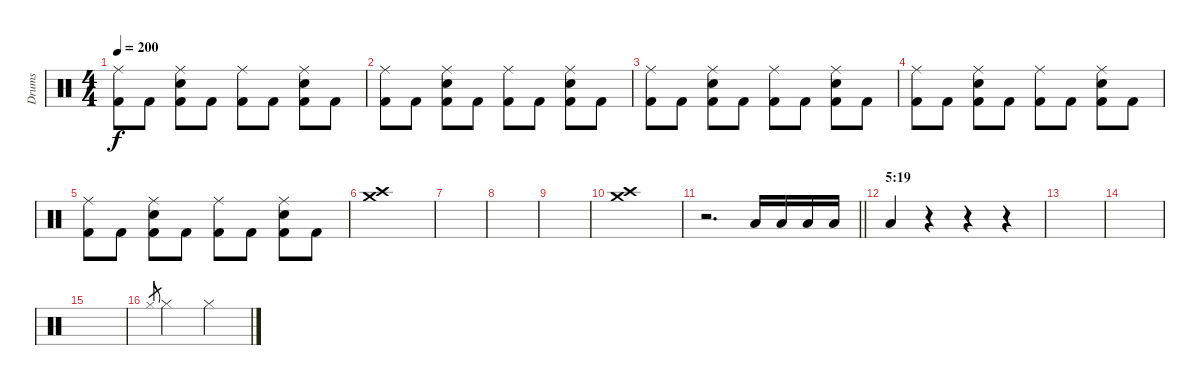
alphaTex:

\track ("Drums" "Drums") {instrument percussion}
\staff {score}
\articulation defaults
\ts (4 4)
\tempo 200
\clef neutral
\ks c
("Ride (middle)" "Kick (hit) 2").8{dy f} "Kick (hit) 2".8 ("Ride (middle)" "Snare (hit) 2" "Kick (hit) 2").8 "Kick (hit) 2".8 ("Ride (middle)" "Kick (hit) 2").8 "Kick (hit) 2".8 ("Ride (middle)" "Snare (hit) 2" "Kick (hit) 2").8 "Kick (hit) 2".8 |
("Ride (middle)" "Kick (hit) 2").8 "Kick (hit) 2".8 ("Ride (middle)" "Snare (hit) 2" "Kick (hit) 2").8 "Kick (hit) 2".8 ("Ride (middle)" "Kick (hit) 2").8 "Kick (hit) 2".8 ("Ride (middle)" "Snare (hit) 2" "Kick (hit) 2").8 "Kick (hit) 2".8 |
("Ride (middle)" "Kick (hit) 2").8 "Kick (hit) 2".8 ("Ride (middle)" "Snare (hit) 2" "Kick (hit) 2").8 "Kick (hit) 2".8 ("Ride (middle)" "Kick (hit) 2").8 "Kick (hit) 2".8 ("Ride (middle)" "Snare (hit) 2" "Kick (hit) 2").8 "Kick (hit) 2".8 |
("Ride (middle)" "Kick (hit) 2").8 "Kick (hit) 2".8 ("Ride (middle)" "Snare (hit) 2" "Kick (hit) 2").8 "Kick (hit) 2".8 ("Ride (middle)" "Kick (hit) 2").8 "Kick (hit) 2".8 ("Ride (middle)" "Snare (hit) 2" "Kick (hit) 2").8 "Kick (hit) 2".8 |
("Ride (middle)" "Kick (hit) 2").8 "Kick (hit) 2".8 ("Ride (middle)" "Snare (hit) 2" "Kick (hit) 2").8 "Kick (hit) 2".8 ("Ride (middle)" "Kick (hit) 2").8 "Kick (hit) 2".8 ("Ride (middle)" "Snare (hit) 2" "Kick (hit) 2").8 "Kick (hit) 2".8 |
("Crash high (hit)" "Crash medium (hit)").1 |
|
|
|
("Crash high (hit)" "Crash medium (hit)").1 |
\barLineRight lightlight
r.2{d} "Low Tom (hit)".16 "Low Tom (hit)".16 "Low Tom (hit)".16 "Low Tom (hit)".16 |
\section ("" "5:19")
"Low Tom (hit)".4 r.4 r.4 r.4 |
|
|
|
"Hi-Hat (closed)".8{gr} "Hi-Hat (closed)".2 "Hi-Hat (closed)".2
